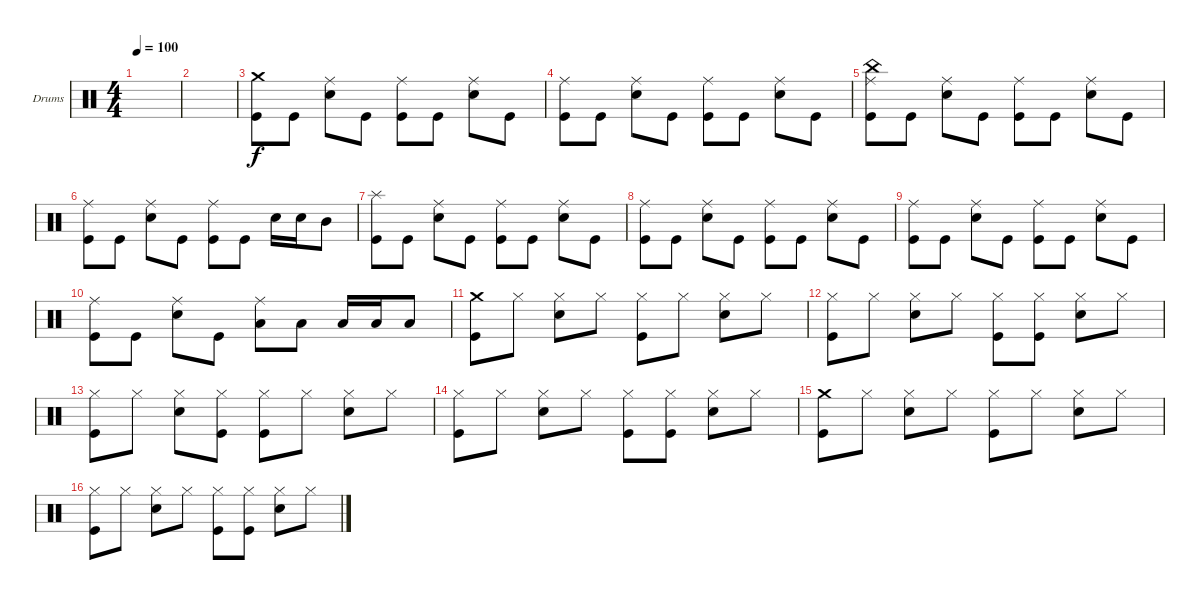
\defaultSystemsLayout 4
\bracketExtendMode groupsimilarinstruments
\firstSystemTrackNameOrientation horizontal
\otherSystemsTrackNameOrientation horizontal
\track ("Барабаны" "Drums") {instrument percussion}
\staff {score}
\articulation defaults
\ts (4 4)
\tempo 100
\clef neutral
\ks c
|
|
("Crash medium (hit)" "Kick (hit)").8 "Kick (hit)".8 ("Snare (hit) 2" "Ride (middle)").8 "Kick (hit)".8 ("Kick (hit)" "Ride (middle)").8 "Kick (hit)".8 ("Snare (hit) 2" "Ride (middle)").8 "Kick (hit)".8 |
("Kick (hit)" "Ride (middle)").8 "Kick (hit)".8 ("Snare (hit) 2" "Ride (middle)").8 "Kick (hit)".8 ("Kick (hit)" "Ride (middle)").8 "Kick (hit)".8 ("Snare (hit) 2" "Ride (middle)").8 "Kick (hit)".8 |
("Kick (hit)" "Ride (middle)" "China (hit)").8 "Kick (hit)".8 ("Snare (hit) 2" "Ride (middle)").8 "Kick (hit)".8 ("Kick (hit)" "Ride (middle)").8 "Kick (hit)".8 ("Snare (hit) 2" "Ride (middle)").8 "Kick (hit)".8 |
("Kick (hit)" "Ride (middle)").8 "Kick (hit)".8 ("Snare (hit) 2" "Ride (middle)").8 "Kick (hit)".8 ("Kick (hit)" "Ride (middle)").8 "Kick (hit)".8 "Snare (hit) 2".16 "Snare (hit) 2".16 "Mid Tom (hit)".8 |
("Kick (hit)" "Splash (hit)").8 "Kick (hit)".8 ("Snare (hit) 2" "Ride (middle)").8 "Kick (hit)".8 ("Kick (hit)" "Ride (middle)").8 "Kick (hit)".8 ("Snare (hit) 2" "Ride (middle)").8 "Kick (hit)".8 |
("Kick (hit)" "Ride (middle)").8 "Kick (hit)".8 ("Snare (hit) 2" "Ride (middle)").8 "Kick (hit)".8 ("Kick (hit)" "Ride (middle)").8 "Kick (hit)".8 ("Snare (hit) 2" "Ride (middle)").8 "Kick (hit)".8 |
("Kick (hit)" "Ride (middle)").8 "Kick (hit)".8 ("Snare (hit) 2" "Ride (middle)").8 "Kick (hit)".8 ("Kick (hit)" "Ride (middle)").8 "Kick (hit)".8 ("Snare (hit) 2" "Ride (middle)").8 "Kick (hit)".8 |
("Kick (hit)" "Ride (middle)").8 "Kick (hit)".8 ("Snare (hit) 2" "Ride (middle)").8 "Kick (hit)".8 ("Ride (middle)" "Low Tom (hit)").8 "Low Tom (hit)".8 "Low Tom (hit)".16 "Low Tom (hit)".16 "Low Tom (hit)".8 |
("Crash medium (hit)" "Kick (hit)").8 "Hi-Hat (closed)".8 ("Hi-Hat (closed)" "Snare (hit) 2").8 "Hi-Hat (closed)".8 ("Hi-Hat (closed)" "Kick (hit)").8 "Hi-Hat (closed)".8 ("Hi-Hat (closed)" "Snare (hit) 2").8 "Hi-Hat (closed)".8 |
("Kick (hit)" "Hi-Hat (closed)").8 "Hi-Hat (closed)".8 ("Hi-Hat (closed)" "Snare (hit) 2").8 "Hi-Hat (closed)".8 ("Hi-Hat (closed)" "Kick (hit)").8 ("Hi-Hat (closed)" "Kick (hit)").8 ("Hi-Hat (closed)" "Snare (hit) 2").8 "Hi-Hat (closed)".8 |
("Kick (hit)" "Hi-Hat (closed)").8 "Hi-Hat (closed)".8 ("Hi-Hat (closed)" "Snare (hit) 2").8 ("Hi-Hat (closed)" "Kick (hit)").8 ("Hi-Hat (closed)" "Kick (hit)").8 "Hi-Hat (closed)".8 ("Hi-Hat (closed)" "Snare (hit) 2").8 "Hi-Hat (closed)".8 |
("Kick (hit)" "Hi-Hat (closed)").8 "Hi-Hat (closed)".8 ("Hi-Hat (closed)" "Snare (hit) 2").8 "Hi-Hat (closed)".8 ("Hi-Hat (closed)" "Kick (hit)").8 ("Hi-Hat (closed)" "Kick (hit)").8 ("Hi-Hat (closed)" "Snare (hit) 2").8 "Hi-Hat (closed)".8 |
("Crash medium (hit)" "Kick (hit)").8 "Hi-Hat (closed)".8 ("Hi-Hat (closed)" "Snare (hit) 2").8 "Hi-Hat (closed)".8 ("Hi-Hat (closed)" "Kick (hit)").8 "Hi-Hat (closed)".8 ("Hi-Hat (closed)" "Snare (hit) 2").8 "Hi-Hat (closed)".8 |
("Kick (hit)" "Hi-Hat (closed)").8 "Hi-Hat (closed)".8 ("Hi-Hat (closed)" "Snare (hit) 2").8 "Hi-Hat (closed)".8 ("Hi-Hat (closed)" "Kick (hit)").8 ("Hi-Hat (closed)" "Kick (hit)").8 ("Hi-Hat (closed)" "Snare (hit) 2").8 "Hi-Hat (closed)".8
